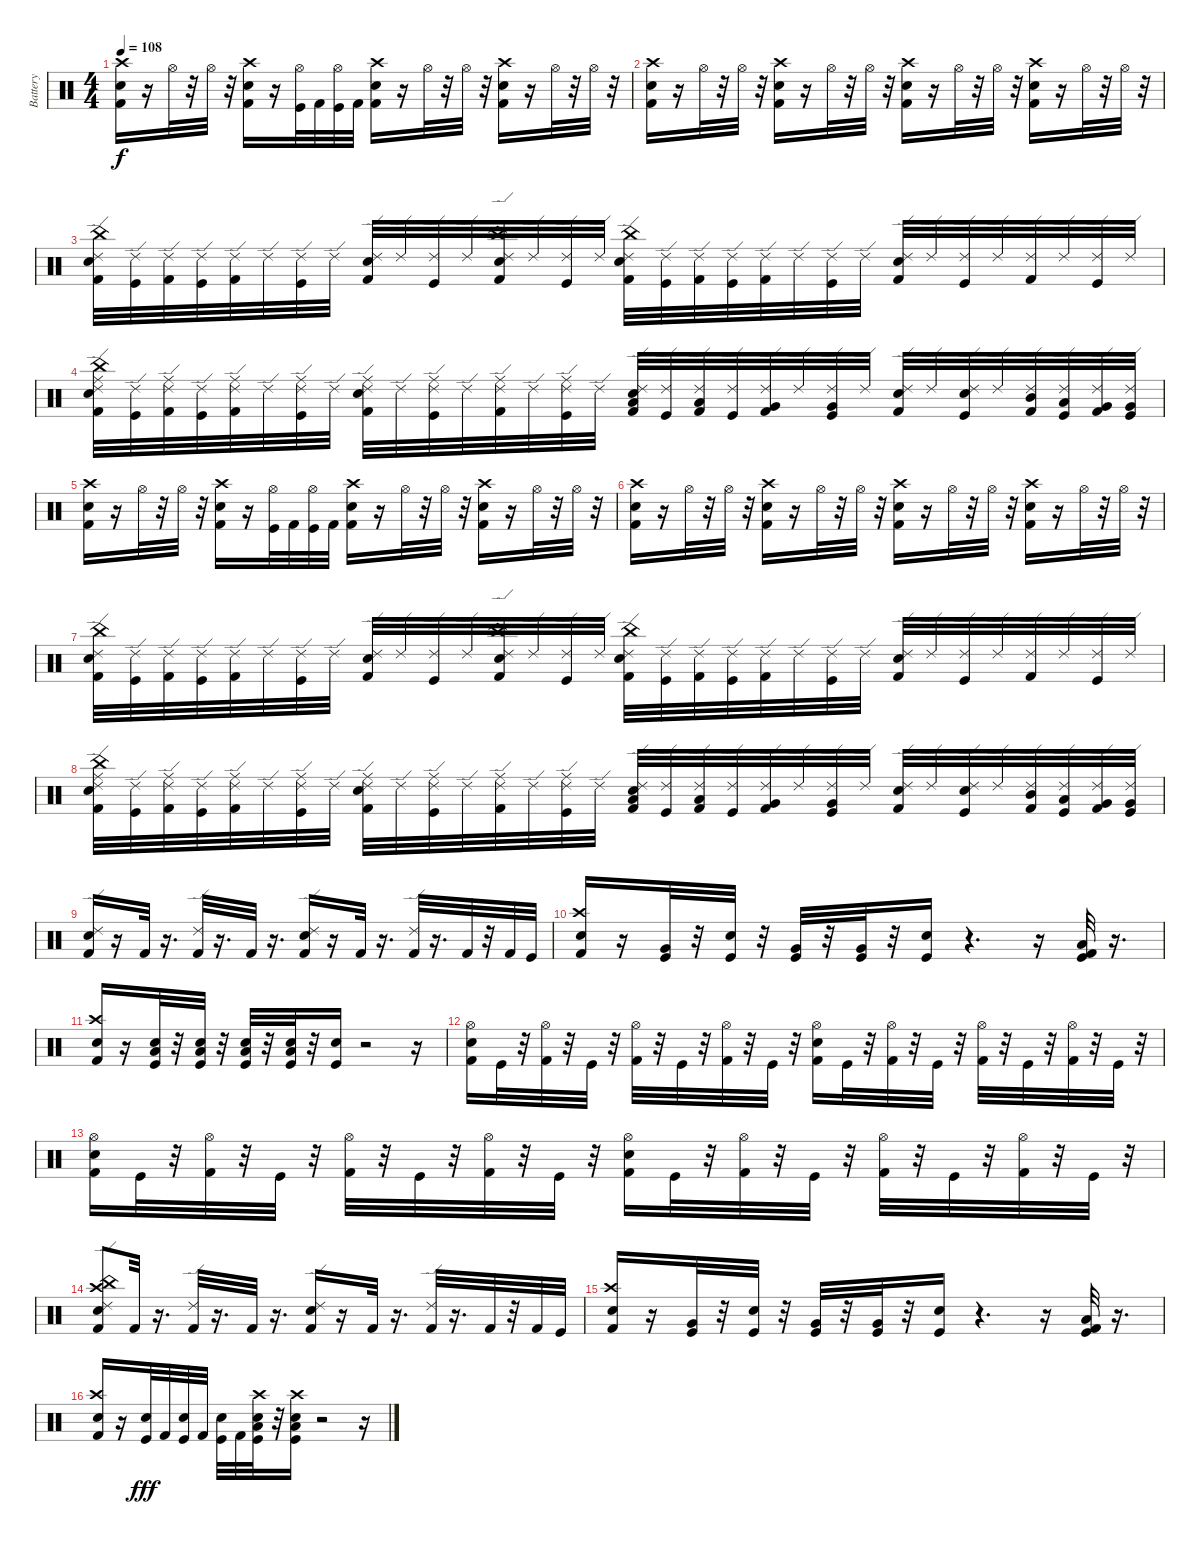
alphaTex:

\track ("Battery" "Battery") {instrument percussion}
\staff {score}
\articulation defaults
\ts (4 4)
\tempo 108
\clef neutral
\ks c
("Kick (hit) 2" "Electric Snare (hit)" "Crash high (hit)").16{dy f} r.16 "Hi-Hat (open)".32 r.32 "Hi-Hat (open)".32 r.32 ("Kick (hit) 2" "Crash high (hit)" "Electric Snare (hit)").16 r.16 ("Kick (hit)" "Hi-Hat (open)").32 "Kick (hit) 2".32 ("Kick (hit)" "Hi-Hat (open)").32 "Kick (hit) 2".32 ("Kick (hit) 2" "Electric Snare (hit)" "Crash high (hit)").16 r.16 "Hi-Hat (open)".32 r.32 "Hi-Hat (open)".32 r.32 ("Crash high (hit)" "Electric Snare (hit)" "Kick (hit) 2").16 r.16 "Hi-Hat (open)".32 r.32 "Hi-Hat (open)".32 r.32 |
("Kick (hit) 2" "Electric Snare (hit)" "Crash high (hit)").16 r.16 "Hi-Hat (open)".32 r.32 "Hi-Hat (open)".32 r.32 ("Kick (hit) 2" "Electric Snare (hit)" "Crash high (hit)").16 r.16 "Hi-Hat (open)".32 r.32 "Hi-Hat (open)".32 r.32 ("Kick (hit) 2" "Electric Snare (hit)" "Crash high (hit)").16 r.16 "Hi-Hat (open)".32 r.32 "Hi-Hat (open)".32 r.32 ("Crash high (hit)" "Kick (hit) 2" "Electric Snare (hit)").16 r.16 "Hi-Hat (open)".32 r.32 "Hi-Hat (open)".32 r.32 |
("Ride (edge) 2" "Electric Snare (hit)" "Kick (hit) 2" "China (hit)").32 ("Ride (edge) 2" "Kick (hit)").32 ("Ride (edge) 2" "Kick (hit) 2").32 ("Kick (hit)" "Ride (edge) 2").32 ("Ride (edge) 2" "Kick (hit) 2").32 "Ride (edge) 2".32 ("Kick (hit)" "Ride (edge) 2").32 "Ride (edge) 2".32 ("Kick (hit) 2" "Ride (edge) 2" "Electric Snare (hit)").32 "Ride (edge) 2".32 ("Kick (hit)" "Ride (edge) 2").32 "Ride (edge) 2".32 ("Ride (edge) 2" "Snare (hit) 2" "Kick (hit) 2" "China (hit)").32 "Ride (edge) 2".32 ("Kick (hit)" "Ride (edge) 2").32 "Ride (edge) 2".32 ("Kick (hit) 2" "Ride (edge) 2" "Electric Snare (hit)" "China (hit)").32 ("Ride (edge) 2" "Kick (hit)").32 ("Kick (hit) 2" "Ride (edge) 2").32 ("Ride (edge) 2" "Kick (hit)").32 ("Kick (hit) 2" "Ride (edge) 2").32 "Ride (edge) 2".32 ("Ride (edge) 2" "Kick (hit)").32 "Ride (edge) 2".32 ("Ride (edge) 2" "Kick (hit) 2" "Electric Snare (hit)").32 "Ride (edge) 2".32 ("Kick (hit)" "Ride (edge) 2").32 "Ride (edge) 2".32 ("Ride (edge) 2" "Kick (hit) 2").32 "Ride (edge) 2".32 ("Ride (edge) 2" "Kick (hit)").32 "Ride (edge) 2".32 |
("Ride (middle)" "China (hit)" "Kick (hit) 2" "Ride (edge) 2" "Electric Snare (hit)").32 ("Ride (edge) 2" "Kick (hit)").32 ("Ride (middle)" "Ride (edge) 2" "Kick (hit) 2").32 ("Ride (edge) 2" "Kick (hit)").32 ("Kick (hit) 2" "Ride (middle)" "Ride (edge) 2").32 "Ride (edge) 2".32 ("Kick (hit)" "Ride (edge) 2" "Ride (middle)").32 "Ride (edge) 2".32 ("Kick (hit) 2" "Ride (edge) 2" "Electric Snare (hit)" "Ride (middle)").32 "Ride (edge) 2".32 ("Ride (middle)" "Kick (hit)" "Ride (edge) 2").32 "Ride (edge) 2".32 ("Ride (middle)" "Ride (edge) 2" "Kick (hit) 2").32 "Ride (edge) 2".32 ("Kick (hit)" "Ride (edge) 2" "Ride (middle)").32 "Ride (edge) 2".32 ("Electric Snare (hit)" "Kick (hit) 2" "Low Tom (hit)" "Ride (edge) 2").32 ("Kick (hit)" "Ride (edge) 2").32 ("Low Tom (hit)" "Kick (hit) 2" "Ride (edge) 2").32 ("Ride (edge) 2" "Kick (hit)").32 ("Ride (edge) 2" "Kick (hit) 2" "Very Low Tom (hit)").32 "Ride (edge) 2".32 ("Ride (edge) 2" "Very Low Tom (hit)" "Kick (hit)").32 "Ride (edge) 2".32 ("Electric Snare (hit)" "Kick (hit) 2" "Ride (edge) 2").32 "Ride (edge) 2".32 ("Ride (edge) 2" "Kick (hit)" "Electric Snare (hit)").32 "Ride (edge) 2".32 ("Mid Tom (hit)" "Ride (edge) 2" "Kick (hit) 2").32 ("Kick (hit)" "Ride (edge) 2" "Low Tom (hit)").32 ("Ride (edge) 2" "Very Low Tom (hit)" "Kick (hit) 2").32 ("Very Low Tom (hit)" "Ride (edge) 2" "Kick (hit)").32 |
("Kick (hit) 2" "Electric Snare (hit)" "Crash high (hit)").16 r.16 "Hi-Hat (open)".32 r.32 "Hi-Hat (open)".32 r.32 ("Kick (hit) 2" "Crash high (hit)" "Electric Snare (hit)").16 r.16 ("Kick (hit)" "Hi-Hat (open)").32 "Kick (hit) 2".32 ("Kick (hit)" "Hi-Hat (open)").32 "Kick (hit) 2".32 ("Kick (hit) 2" "Electric Snare (hit)" "Crash high (hit)").16 r.16 "Hi-Hat (open)".32 r.32 "Hi-Hat (open)".32 r.32 ("Crash high (hit)" "Electric Snare (hit)" "Kick (hit) 2").16 r.16 "Hi-Hat (open)".32 r.32 "Hi-Hat (open)".32 r.32 |
("Kick (hit) 2" "Electric Snare (hit)" "Crash high (hit)").16 r.16 "Hi-Hat (open)".32 r.32 "Hi-Hat (open)".32 r.32 ("Kick (hit) 2" "Electric Snare (hit)" "Crash high (hit)").16 r.16 "Hi-Hat (open)".32 r.32 "Hi-Hat (open)".32 r.32 ("Kick (hit) 2" "Electric Snare (hit)" "Crash high (hit)").16 r.16 "Hi-Hat (open)".32 r.32 "Hi-Hat (open)".32 r.32 ("Crash high (hit)" "Kick (hit) 2" "Electric Snare (hit)").16 r.16 "Hi-Hat (open)".32 r.32 "Hi-Hat (open)".32 r.32 |
("Ride (edge) 2" "Electric Snare (hit)" "Kick (hit) 2" "China (hit)").32 ("Ride (edge) 2" "Kick (hit)").32 ("Ride (edge) 2" "Kick (hit) 2").32 ("Kick (hit)" "Ride (edge) 2").32 ("Ride (edge) 2" "Kick (hit) 2").32 "Ride (edge) 2".32 ("Kick (hit)" "Ride (edge) 2").32 "Ride (edge) 2".32 ("Kick (hit) 2" "Ride (edge) 2" "Electric Snare (hit)").32 "Ride (edge) 2".32 ("Kick (hit)" "Ride (edge) 2").32 "Ride (edge) 2".32 ("Ride (edge) 2" "Snare (hit) 2" "Kick (hit) 2" "China (hit)").32 "Ride (edge) 2".32 ("Kick (hit)" "Ride (edge) 2").32 "Ride (edge) 2".32 ("Kick (hit) 2" "Ride (edge) 2" "Electric Snare (hit)" "China (hit)").32 ("Ride (edge) 2" "Kick (hit)").32 ("Kick (hit) 2" "Ride (edge) 2").32 ("Ride (edge) 2" "Kick (hit)").32 ("Kick (hit) 2" "Ride (edge) 2").32 "Ride (edge) 2".32 ("Ride (edge) 2" "Kick (hit)").32 "Ride (edge) 2".32 ("Ride (edge) 2" "Kick (hit) 2" "Electric Snare (hit)").32 "Ride (edge) 2".32 ("Kick (hit)" "Ride (edge) 2").32 "Ride (edge) 2".32 ("Ride (edge) 2" "Kick (hit) 2").32 "Ride (edge) 2".32 ("Ride (edge) 2" "Kick (hit)").32 "Ride (edge) 2".32 |
("Ride (middle)" "China (hit)" "Kick (hit) 2" "Ride (edge) 2" "Electric Snare (hit)").32 ("Ride (edge) 2" "Kick (hit)").32 ("Ride (middle)" "Ride (edge) 2" "Kick (hit) 2").32 ("Ride (edge) 2" "Kick (hit)").32 ("Kick (hit) 2" "Ride (middle)" "Ride (edge) 2").32 "Ride (edge) 2".32 ("Kick (hit)" "Ride (edge) 2" "Ride (middle)").32 "Ride (edge) 2".32 ("Kick (hit) 2" "Ride (edge) 2" "Electric Snare (hit)" "Ride (middle)").32 "Ride (edge) 2".32 ("Ride (middle)" "Kick (hit)" "Ride (edge) 2").32 "Ride (edge) 2".32 ("Ride (middle)" "Ride (edge) 2" "Kick (hit) 2").32 "Ride (edge) 2".32 ("Kick (hit)" "Ride (edge) 2" "Ride (middle)").32 "Ride (edge) 2".32 ("Electric Snare (hit)" "Kick (hit) 2" "Low Tom (hit)" "Ride (edge) 2").32 ("Kick (hit)" "Ride (edge) 2").32 ("Low Tom (hit)" "Kick (hit) 2" "Ride (edge) 2").32 ("Ride (edge) 2" "Kick (hit)").32 ("Ride (edge) 2" "Kick (hit) 2" "Very Low Tom (hit)").32 "Ride (edge) 2".32 ("Ride (edge) 2" "Very Low Tom (hit)" "Kick (hit)").32 "Ride (edge) 2".32 ("Electric Snare (hit)" "Kick (hit) 2" "Ride (edge) 2").32 "Ride (edge) 2".32 ("Ride (edge) 2" "Kick (hit)" "Electric Snare (hit)").32 "Ride (edge) 2".32 ("Mid Tom (hit)" "Ride (edge) 2" "Kick (hit) 2").32 ("Kick (hit)" "Ride (edge) 2" "Low Tom (hit)").32 ("Ride (edge) 2" "Very Low Tom (hit)" "Kick (hit) 2").32 ("Very Low Tom (hit)" "Ride (edge) 2" "Kick (hit)").32 |
("Ride (edge) 2" "Kick (hit) 2" "Snare (hit) 2").16 r.16 "Kick (hit) 2".32 r.16{d} ("Ride (edge) 2" "Kick (hit) 2").32 r.16{d} "Kick (hit) 2".32 r.16{d} ("Ride (edge) 2" "Snare (hit) 2" "Kick (hit) 2").16 r.16 "Kick (hit) 2".32 r.16{d} ("Ride (edge) 2" "Kick (hit) 2").32 r.16{d} "Kick (hit) 2".32 r.32 "Kick (hit) 2".32 "Kick (hit)".32 |
("Kick (hit) 2" "Crash high (hit)" "Snare (hit) 2").16 r.16 ("Kick (hit)" "Very Low Tom (hit)").32 r.32 ("Kick (hit)" "Electric Snare (hit)").32 r.32 ("Kick (hit)" "Very Low Tom (hit)").32 r.32 ("Very Low Tom (hit)" "Kick (hit)").32 r.32 ("Kick (hit)" "Snare (hit) 2").16 r.4{d} r.16 ("Kick (hit)" "Kick (hit) 2" "Low Floor Tom (hit)").32 r.16{d} |
("Kick (hit) 2" "Crash high (hit)" "Snare (hit) 2").16 r.16 ("Low Floor Tom (hit)" "Snare (hit) 2" "Kick (hit)").32 r.32 ("Low Floor Tom (hit)" "Snare (hit) 2" "Kick (hit)").32 r.32 ("Low Floor Tom (hit)" "Snare (hit) 2" "Kick (hit)").32 r.32 ("Low Floor Tom (hit)" "Snare (hit) 2" "Kick (hit)").32 r.32 ("Kick (hit)" "Snare (hit) 2").16 r.2 r.16 |
("Kick (hit) 2" "Snare (hit) 2" "Hi-Hat (open)").16 "Kick (hit)".32 r.32 ("Kick (hit) 2" "Hi-Hat (open)").32 r.32 "Kick (hit)".32 r.32 ("Kick (hit) 2" "Hi-Hat (open)").32 r.32 "Kick (hit)".32 r.32 ("Hi-Hat (open)" "Kick (hit) 2").32 r.32 "Kick (hit)".32 r.32 ("Snare (hit) 2" "Kick (hit) 2" "Hi-Hat (open)").16 "Kick (hit)".32 r.32 ("Kick (hit) 2" "Hi-Hat (open)").32 r.32 "Kick (hit)".32 r.32 ("Kick (hit) 2" "Hi-Hat (open)").32 r.32 "Kick (hit)".32 r.32 ("Kick (hit) 2" "Hi-Hat (open)").32 r.32 "Kick (hit)".32 r.32 |
("Hi-Hat (open)" "Kick (hit) 2" "Snare (hit) 2").16 "Kick (hit)".32 r.32 ("Hi-Hat (open)" "Kick (hit) 2").32 r.32 "Kick (hit)".32 r.32 ("Hi-Hat (open)" "Kick (hit) 2").32 r.32 "Kick (hit)".32 r.32 ("Hi-Hat (open)" "Kick (hit) 2").32 r.32 "Kick (hit)".32 r.32 ("Hi-Hat (open)" "Snare (hit) 2" "Kick (hit) 2").16 "Kick (hit)".32 r.32 ("Hi-Hat (open)" "Kick (hit) 2").32 r.32 "Kick (hit)".32 r.32 ("Kick (hit) 2" "Hi-Hat (open)").32 r.32 "Kick (hit)".32 r.32 ("Kick (hit) 2" "Hi-Hat (open)").32 r.32 "Kick (hit)".32 r.32 |
("China (hit)" "Crash high (hit)" "Kick (hit) 2" "Snare (hit) 2" "Ride (edge) 2").8 "Kick (hit) 2".32 r.16{d} ("Ride (edge) 2" "Kick (hit) 2").32 r.16{d} "Kick (hit) 2".32 r.16{d} ("Ride (edge) 2" "Kick (hit) 2" "Snare (hit) 2").16 r.16 "Kick (hit) 2".32 r.16{d} ("Kick (hit) 2" "Ride (edge) 2").32 r.16{d} "Kick (hit) 2".32 r.32 "Kick (hit) 2".32 "Kick (hit)".32 |
("Kick (hit) 2" "Snare (hit) 2" "Crash high (hit)").16 r.16 ("Kick (hit)" "Very Low Tom (hit)").32 r.32 ("Electric Snare (hit)" "Kick (hit)").32 r.32 ("Very Low Tom (hit)" "Kick (hit)").32 r.32 ("Kick (hit)" "Very Low Tom (hit)").32 r.32 ("Kick (hit)" "Snare (hit) 2").16 r.4{d} r.16 ("Low Floor Tom (hit)" "Kick (hit)" "Kick (hit) 2").32 r.16{d} |
("Snare (hit) 2" "Kick (hit) 2" "Crash high (hit)").16 r.16 ("Snare (hit) 2" "Kick (hit)").32{dy fff} "Kick (hit) 2".32 ("Snare (hit) 2" "Kick (hit)").32 "Kick (hit) 2".32 ("Snare (hit) 2" "Kick (hit)").32 "Kick (hit) 2".32 ("Crash high (hit)" "Low Floor Tom (hit)" "Snare (hit) 2" "Kick (hit)").32 r.32 ("Crash high (hit)" "Snare (hit) 2" "Low Floor Tom (hit)" "Kick (hit)").16 r.2 r.16
